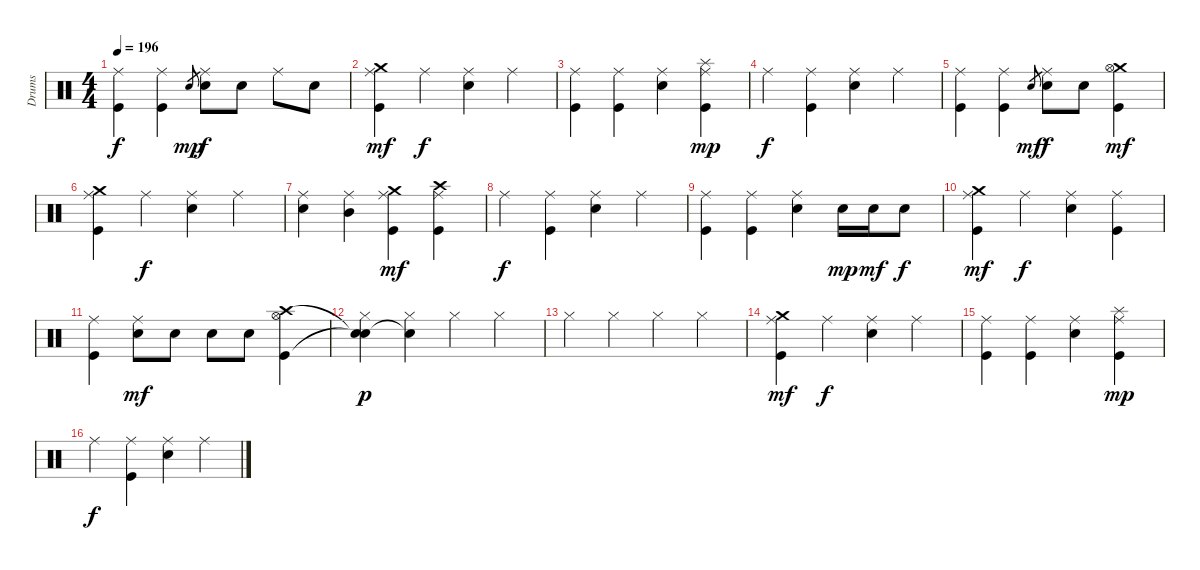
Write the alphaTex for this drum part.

\track ("Drums" "Drums") {instrument percussion}
\staff {score}
\articulation defaults
\ts (4 4)
\tempo 196
\clef neutral
\ks c
("Ride (middle)" "Kick (hit)").4{dy f} ("Ride (middle)" "Kick (hit)").4 "Electric Snare (hit)".8{gr dy mp} ("Ride (middle)" "Electric Snare (hit)").8{dy f} "Electric Snare (hit)".8 "Ride (middle)".8 "Electric Snare (hit)".8 |
("Crash medium (hit)" "Ride (middle)" "Kick (hit)").4{dy mf} "Ride (middle)".4{dy f} ("Ride (middle)" "Electric Snare (hit)").4 "Ride (middle)".4 |
("Ride (middle)" "Kick (hit)").4 ("Ride (middle)" "Kick (hit)").4 ("Ride (middle)" "Electric Snare (hit)").4 ("Splash (hit)" "Ride (middle)" "Kick (hit)").4{dy mp} |
"Ride (middle)".4{dy f} ("Ride (middle)" "Kick (hit)").4 ("Ride (middle)" "Electric Snare (hit)").4 "Ride (middle)".4 |
("Ride (middle)" "Kick (hit)").4 ("Ride (middle)" "Kick (hit)").4 "Electric Snare (hit)".8{gr dy mf} ("Ride (middle)" "Electric Snare (hit)").8{dy f} "Electric Snare (hit)".8 ("Crash medium (hit)" "Hi-Hat (open)" "Kick (hit)").4{dy mf} |
("Crash medium (hit)" "Ride (middle)" "Kick (hit)").4 "Ride (middle)".4{dy f} ("Ride (middle)" "Electric Snare (hit)").4 "Ride (middle)".4 |
("Ride (middle)" "Electric Snare (hit)").4 ("Ride (middle)" "Mid Tom (hit)").4 ("Crash medium (hit)" "Ride (middle)" "Kick (hit)").4{dy mf} ("Crash high (hit)" "Ride (middle)" "Kick (hit)").4 |
"Ride (middle)".4{dy f} ("Ride (middle)" "Kick (hit)").4 ("Ride (middle)" "Electric Snare (hit)").4 "Ride (middle)".4 |
("Ride (middle)" "Kick (hit)").4 ("Ride (middle)" "Kick (hit)").4 ("Ride (middle)" "Electric Snare (hit)").4 "Electric Snare (hit)".16{dy mp} "Electric Snare (hit)".16{dy mf} "Electric Snare (hit)".8{dy f} |
("Crash medium (hit)" "Ride (middle)" "Kick (hit)").4{dy mf} "Ride (middle)".4{dy f} ("Ride (middle)" "Electric Snare (hit)").4 ("Ride (middle)" "Kick (hit)").4 |
("Ride (middle)" "Kick (hit)").4 ("Ride (middle)" "Electric Snare (hit)").8{dy mf} "Electric Snare (hit)".8 "Electric Snare (hit)".8 "Electric Snare (hit)".8 ("Crash high (hit)" "Hi-Hat (open)" "Kick (hit)").4 |
("Snare (hit)"{t} "Hi-Hat (closed)" "Snare (hit)"{t}).4{dy p} ("Snare (hit)"{t} "Hi-Hat (closed)").4 "Hi-Hat (closed)".4 "Hi-Hat (closed)".4 |
"Hi-Hat (closed)".4 "Hi-Hat (closed)".4 "Hi-Hat (closed)".4 "Hi-Hat (closed)".4 |
("Crash medium (hit)" "Ride (middle)" "Kick (hit)").4{dy mf} "Ride (middle)".4{dy f} ("Ride (middle)" "Electric Snare (hit)").4 "Ride (middle)".4 |
("Ride (middle)" "Kick (hit)").4 ("Ride (middle)" "Kick (hit)").4 ("Ride (middle)" "Electric Snare (hit)").4 ("Splash (hit)" "Ride (middle)" "Kick (hit)").4{dy mp} |
"Ride (middle)".4{dy f} ("Ride (middle)" "Kick (hit)").4 ("Ride (middle)" "Electric Snare (hit)").4 "Ride (middle)".4
